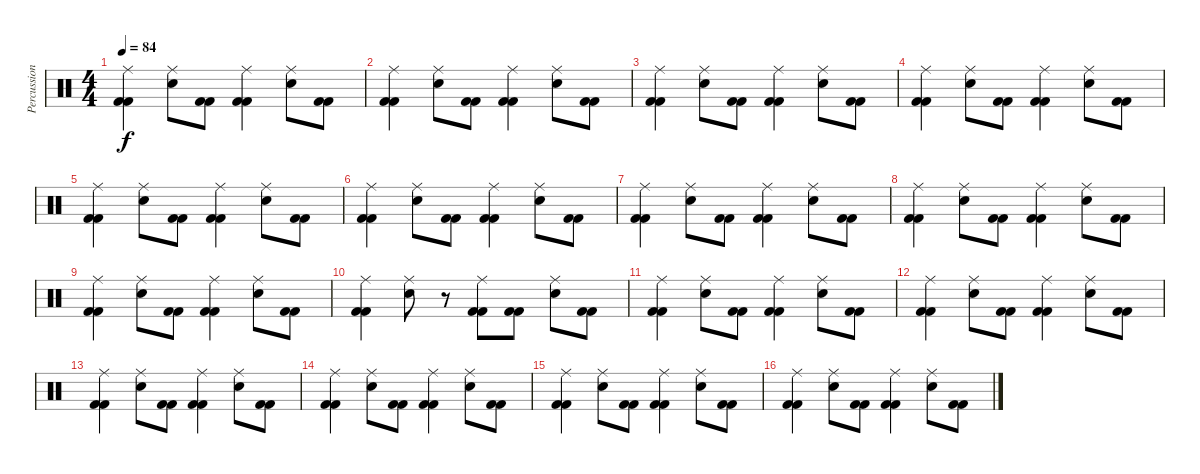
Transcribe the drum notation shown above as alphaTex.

\track ("Percussion" "Percussion") {instrument percussion}
\staff {score}
\articulation defaults
\ts (4 4)
\tempo 84
\clef neutral
\ks c
("Ride (middle)" "Kick (hit) 2" "Kick (hit) 2").4{dy f} ("Ride (middle)" "Electric Snare (hit)").8 ("Kick (hit) 2" "Kick (hit) 2").8 ("Ride (middle)" "Kick (hit) 2" "Kick (hit) 2").4 ("Ride (middle)" "Electric Snare (hit)").8 ("Kick (hit) 2" "Kick (hit) 2").8 |
("Ride (middle)" "Kick (hit) 2" "Kick (hit) 2").4 ("Ride (middle)" "Electric Snare (hit)").8 ("Kick (hit) 2" "Kick (hit) 2").8 ("Ride (middle)" "Kick (hit) 2" "Kick (hit) 2").4 ("Ride (middle)" "Electric Snare (hit)").8 ("Kick (hit) 2" "Kick (hit) 2").8 |
("Ride (middle)" "Kick (hit) 2" "Kick (hit) 2").4 ("Ride (middle)" "Electric Snare (hit)").8 ("Kick (hit) 2" "Kick (hit) 2").8 ("Ride (middle)" "Kick (hit) 2" "Kick (hit) 2").4 ("Ride (middle)" "Electric Snare (hit)").8 ("Kick (hit) 2" "Kick (hit) 2").8 |
("Ride (middle)" "Kick (hit) 2" "Kick (hit) 2").4 ("Ride (middle)" "Electric Snare (hit)").8 ("Kick (hit) 2" "Kick (hit) 2").8 ("Ride (middle)" "Kick (hit) 2" "Kick (hit) 2").4 ("Ride (middle)" "Electric Snare (hit)").8 ("Kick (hit) 2" "Kick (hit) 2").8 |
("Ride (middle)" "Kick (hit) 2" "Kick (hit) 2").4 ("Ride (middle)" "Electric Snare (hit)").8 ("Kick (hit) 2" "Kick (hit) 2").8 ("Ride (middle)" "Kick (hit) 2" "Kick (hit) 2").4 ("Ride (middle)" "Electric Snare (hit)").8 ("Kick (hit) 2" "Kick (hit) 2").8 |
("Ride (middle)" "Kick (hit) 2" "Kick (hit) 2").4 ("Ride (middle)" "Electric Snare (hit)").8 ("Kick (hit) 2" "Kick (hit) 2").8 ("Ride (middle)" "Kick (hit) 2" "Kick (hit) 2").4 ("Ride (middle)" "Electric Snare (hit)").8 ("Kick (hit) 2" "Kick (hit) 2").8 |
("Ride (middle)" "Kick (hit) 2" "Kick (hit) 2").4 ("Ride (middle)" "Electric Snare (hit)").8 ("Kick (hit) 2" "Kick (hit) 2").8 ("Ride (middle)" "Kick (hit) 2" "Kick (hit) 2").4 ("Ride (middle)" "Electric Snare (hit)").8 ("Kick (hit) 2" "Kick (hit) 2").8 |
("Ride (middle)" "Kick (hit) 2" "Kick (hit) 2").4 ("Ride (middle)" "Electric Snare (hit)").8 ("Kick (hit) 2" "Kick (hit) 2").8 ("Ride (middle)" "Kick (hit) 2" "Kick (hit) 2").4 ("Ride (middle)" "Electric Snare (hit)").8 ("Kick (hit) 2" "Kick (hit) 2").8 |
("Ride (middle)" "Kick (hit) 2" "Kick (hit) 2").4 ("Ride (middle)" "Electric Snare (hit)").8 ("Kick (hit) 2" "Kick (hit) 2").8 ("Ride (middle)" "Kick (hit) 2" "Kick (hit) 2").4 ("Ride (middle)" "Electric Snare (hit)").8 ("Kick (hit) 2" "Kick (hit) 2").8 |
("Ride (middle)" "Kick (hit) 2" "Kick (hit) 2").4 ("Ride (middle)" "Electric Snare (hit)").8 r.8 ("Ride (middle)" "Kick (hit) 2" "Kick (hit) 2").8 ("Kick (hit) 2" "Kick (hit) 2").8 ("Ride (middle)" "Electric Snare (hit)").8 ("Kick (hit) 2" "Kick (hit) 2").8 |
("Ride (middle)" "Kick (hit) 2" "Kick (hit) 2").4 ("Ride (middle)" "Electric Snare (hit)").8 ("Kick (hit) 2" "Kick (hit) 2").8 ("Ride (middle)" "Kick (hit) 2" "Kick (hit) 2").4 ("Ride (middle)" "Electric Snare (hit)").8 ("Kick (hit) 2" "Kick (hit) 2").8 |
("Ride (middle)" "Kick (hit) 2" "Kick (hit) 2").4 ("Ride (middle)" "Electric Snare (hit)").8 ("Kick (hit) 2" "Kick (hit) 2").8 ("Ride (middle)" "Kick (hit) 2" "Kick (hit) 2").4 ("Ride (middle)" "Electric Snare (hit)").8 ("Kick (hit) 2" "Kick (hit) 2").8 |
("Ride (middle)" "Kick (hit) 2" "Kick (hit) 2").4 ("Ride (middle)" "Electric Snare (hit)").8 ("Kick (hit) 2" "Kick (hit) 2").8 ("Ride (middle)" "Kick (hit) 2" "Kick (hit) 2").4 ("Ride (middle)" "Electric Snare (hit)").8 ("Kick (hit) 2" "Kick (hit) 2").8 |
("Ride (middle)" "Kick (hit) 2" "Kick (hit) 2").4 ("Ride (middle)" "Electric Snare (hit)").8 ("Kick (hit) 2" "Kick (hit) 2").8 ("Ride (middle)" "Kick (hit) 2" "Kick (hit) 2").4 ("Ride (middle)" "Electric Snare (hit)").8 ("Kick (hit) 2" "Kick (hit) 2").8 |
("Ride (middle)" "Kick (hit) 2" "Kick (hit) 2").4 ("Ride (middle)" "Electric Snare (hit)").8 ("Kick (hit) 2" "Kick (hit) 2").8 ("Ride (middle)" "Kick (hit) 2" "Kick (hit) 2").4 ("Ride (middle)" "Electric Snare (hit)").8 ("Kick (hit) 2" "Kick (hit) 2").8 |
("Ride (middle)" "Kick (hit) 2" "Kick (hit) 2").4 ("Ride (middle)" "Electric Snare (hit)").8 ("Kick (hit) 2" "Kick (hit) 2").8 ("Ride (middle)" "Kick (hit) 2" "Kick (hit) 2").4 ("Ride (middle)" "Electric Snare (hit)").8 ("Kick (hit) 2" "Kick (hit) 2").8
